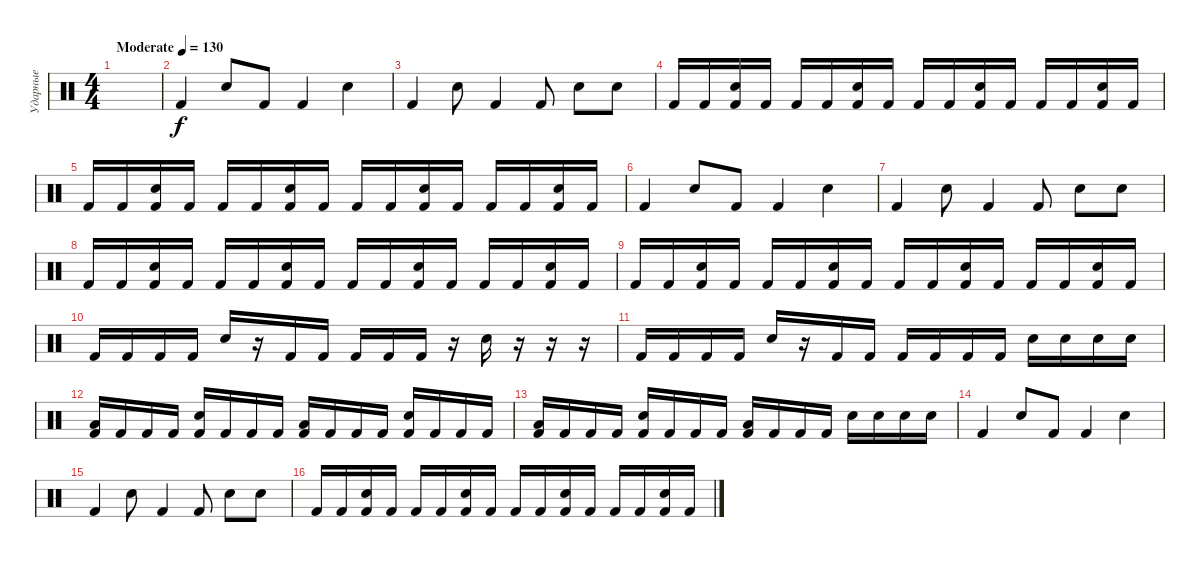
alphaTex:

\track ("Ударные" "Ударные") {instrument percussion}
\staff {score}
\articulation defaults
\ts (4 4)
\tempo (130 "Moderate")
\clef neutral
\ks c
|
"Kick (hit) 2".4 "Snare (hit) 2".8 "Kick (hit) 2".8 "Kick (hit) 2".4 "Snare (hit) 2".4 |
"Kick (hit) 2".4 "Snare (hit) 2".8 "Kick (hit) 2".4 "Kick (hit) 2".8 "Snare (hit) 2".8 "Snare (hit) 2".8 |
"Kick (hit) 2".16 "Kick (hit) 2".16 ("Snare (hit) 2" "Kick (hit) 2").16 "Kick (hit) 2".16 "Kick (hit) 2".16 "Kick (hit) 2".16 ("Snare (hit) 2" "Kick (hit) 2").16 "Kick (hit) 2".16 "Kick (hit) 2".16 "Kick (hit) 2".16 ("Snare (hit) 2" "Kick (hit) 2").16 "Kick (hit) 2".16 "Kick (hit) 2".16 "Kick (hit) 2".16 ("Snare (hit) 2" "Kick (hit) 2").16 "Kick (hit) 2".16 |
"Kick (hit) 2".16 "Kick (hit) 2".16 ("Snare (hit) 2" "Kick (hit) 2").16 "Kick (hit) 2".16 "Kick (hit) 2".16 "Kick (hit) 2".16 ("Snare (hit) 2" "Kick (hit) 2").16 "Kick (hit) 2".16 "Kick (hit) 2".16 "Kick (hit) 2".16 ("Snare (hit) 2" "Kick (hit) 2").16 "Kick (hit) 2".16 "Kick (hit) 2".16 "Kick (hit) 2".16 ("Snare (hit) 2" "Kick (hit) 2").16 "Kick (hit) 2".16 |
"Kick (hit) 2".4 "Snare (hit) 2".8 "Kick (hit) 2".8 "Kick (hit) 2".4 "Snare (hit) 2".4 |
"Kick (hit) 2".4 "Snare (hit) 2".8 "Kick (hit) 2".4 "Kick (hit) 2".8 "Snare (hit) 2".8 "Snare (hit) 2".8 |
"Kick (hit) 2".16 "Kick (hit) 2".16 ("Snare (hit) 2" "Kick (hit) 2").16 "Kick (hit) 2".16 "Kick (hit) 2".16 "Kick (hit) 2".16 ("Snare (hit) 2" "Kick (hit) 2").16 "Kick (hit) 2".16 "Kick (hit) 2".16 "Kick (hit) 2".16 ("Snare (hit) 2" "Kick (hit) 2").16 "Kick (hit) 2".16 "Kick (hit) 2".16 "Kick (hit) 2".16 ("Snare (hit) 2" "Kick (hit) 2").16 "Kick (hit) 2".16 |
"Kick (hit) 2".16 "Kick (hit) 2".16 ("Snare (hit) 2" "Kick (hit) 2").16 "Kick (hit) 2".16 "Kick (hit) 2".16 "Kick (hit) 2".16 ("Snare (hit) 2" "Kick (hit) 2").16 "Kick (hit) 2".16 "Kick (hit) 2".16 "Kick (hit) 2".16 ("Snare (hit) 2" "Kick (hit) 2").16 "Kick (hit) 2".16 "Kick (hit) 2".16 "Kick (hit) 2".16 ("Snare (hit) 2" "Kick (hit) 2").16 "Kick (hit) 2".16 |
"Kick (hit) 2".16 "Kick (hit) 2".16 "Kick (hit) 2".16 "Kick (hit) 2".16 "Snare (hit) 2".16 r.16 "Kick (hit) 2".16 "Kick (hit) 2".16 "Kick (hit) 2".16 "Kick (hit) 2".16 "Kick (hit) 2".16 r.16 "Snare (hit) 2".16 r.16 r.16 r.16 |
"Kick (hit) 2".16 "Kick (hit) 2".16 "Kick (hit) 2".16 "Kick (hit) 2".16 "Snare (hit) 2".16 r.16 "Kick (hit) 2".16 "Kick (hit) 2".16 "Kick (hit) 2".16 "Kick (hit) 2".16 "Kick (hit) 2".16 "Kick (hit) 2".16 "Snare (hit) 2".16 "Snare (hit) 2".16 "Snare (hit) 2".16 "Snare (hit) 2".16 |
("Kick (hit) 2" "Low Floor Tom (hit)").16 "Kick (hit) 2".16 "Kick (hit) 2".16 "Kick (hit) 2".16 ("Snare (hit) 2" "Kick (hit) 2").16 "Kick (hit) 2".16 "Kick (hit) 2".16 "Kick (hit) 2".16 ("Kick (hit) 2" "Low Floor Tom (hit)").16 "Kick (hit) 2".16 "Kick (hit) 2".16 "Kick (hit) 2".16 ("Snare (hit) 2" "Kick (hit) 2").16 "Kick (hit) 2".16 "Kick (hit) 2".16 "Kick (hit) 2".16 |
("Kick (hit) 2" "Low Floor Tom (hit)").16 "Kick (hit) 2".16 "Kick (hit) 2".16 "Kick (hit) 2".16 ("Snare (hit) 2" "Kick (hit) 2").16 "Kick (hit) 2".16 "Kick (hit) 2".16 "Kick (hit) 2".16 ("Kick (hit) 2" "Low Floor Tom (hit)").16 "Kick (hit) 2".16 "Kick (hit) 2".16 "Kick (hit) 2".16 "Snare (hit) 2".16 "Snare (hit) 2".16 "Snare (hit) 2".16 "Snare (hit) 2".16 |
"Kick (hit) 2".4 "Snare (hit) 2".8 "Kick (hit) 2".8 "Kick (hit) 2".4 "Snare (hit) 2".4 |
"Kick (hit) 2".4 "Snare (hit) 2".8 "Kick (hit) 2".4 "Kick (hit) 2".8 "Snare (hit) 2".8 "Snare (hit) 2".8 |
"Kick (hit) 2".16 "Kick (hit) 2".16 ("Snare (hit) 2" "Kick (hit) 2").16 "Kick (hit) 2".16 "Kick (hit) 2".16 "Kick (hit) 2".16 ("Snare (hit) 2" "Kick (hit) 2").16 "Kick (hit) 2".16 "Kick (hit) 2".16 "Kick (hit) 2".16 ("Snare (hit) 2" "Kick (hit) 2").16 "Kick (hit) 2".16 "Kick (hit) 2".16 "Kick (hit) 2".16 ("Snare (hit) 2" "Kick (hit) 2").16 "Kick (hit) 2".16
